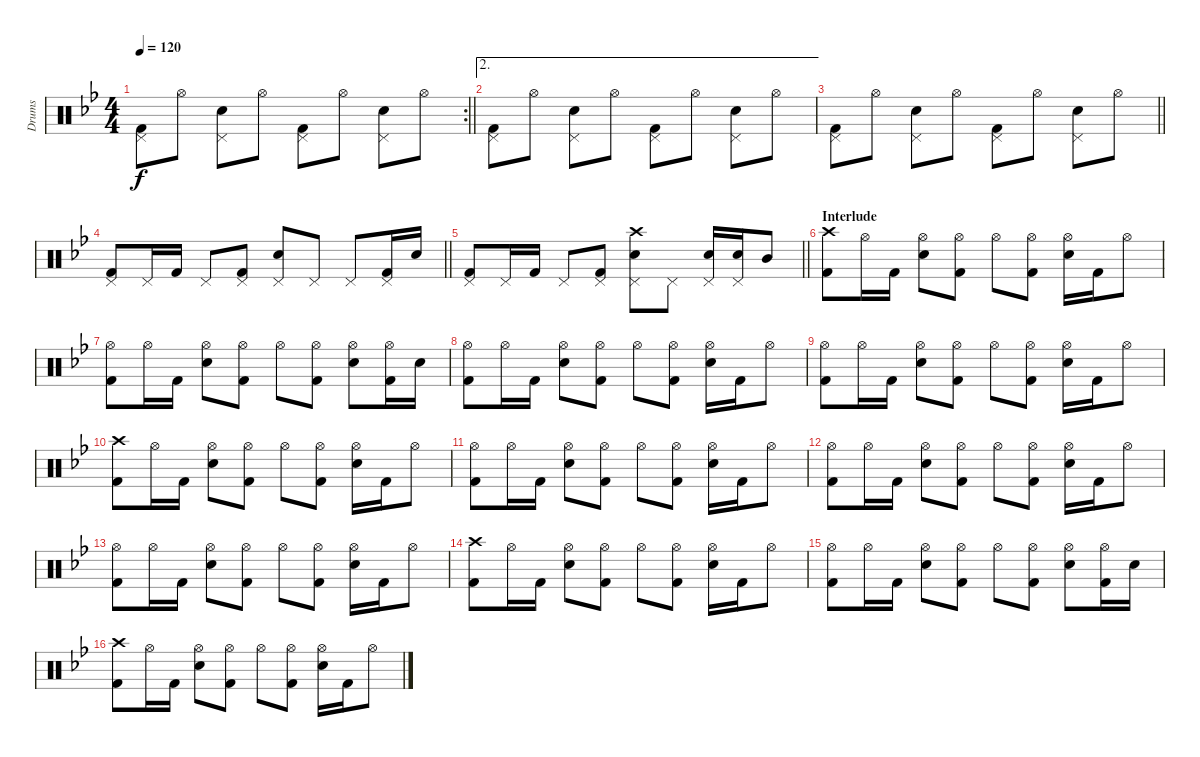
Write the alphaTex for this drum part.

\track ("Drums" "Drums") {instrument percussion}
\staff {score}
\articulation defaults
\rc 2
\ts (4 4)
\tempo 120
\clef neutral
\barLineRight lightlight
\ks bb
("Pedal Hi-Hat (hit)" "Kick (hit) 2").8{dy f} "Hi-Hat (open)".8 ("Electric Snare (hit)" "Pedal Hi-Hat (hit)").8 "Hi-Hat (open)".8 ("Pedal Hi-Hat (hit)" "Kick (hit) 2").8 "Hi-Hat (open)".8 ("Electric Snare (hit)" "Pedal Hi-Hat (hit)").8 "Hi-Hat (open)".8 |
\ae 2
("Pedal Hi-Hat (hit)" "Kick (hit) 2").8 "Hi-Hat (open)".8 ("Electric Snare (hit)" "Pedal Hi-Hat (hit)").8 "Hi-Hat (open)".8 ("Pedal Hi-Hat (hit)" "Kick (hit) 2").8 "Hi-Hat (open)".8 ("Electric Snare (hit)" "Pedal Hi-Hat (hit)").8 "Hi-Hat (open)".8 |
\barLineRight lightlight
("Pedal Hi-Hat (hit)" "Kick (hit) 2").8 "Hi-Hat (open)".8 ("Electric Snare (hit)" "Pedal Hi-Hat (hit)").8 "Hi-Hat (open)".8 ("Pedal Hi-Hat (hit)" "Kick (hit) 2").8 "Hi-Hat (open)".8 ("Electric Snare (hit)" "Pedal Hi-Hat (hit)").8 "Hi-Hat (open)".8 |
\barLineRight lightlight
("Pedal Hi-Hat (hit)" "Kick (hit) 2").8 "Pedal Hi-Hat (hit)".16 "Kick (hit) 2".16 "Pedal Hi-Hat (hit)".8 ("Pedal Hi-Hat (hit)" "Kick (hit) 2").8 ("Pedal Hi-Hat (hit)" "Electric Snare (hit)").8 "Pedal Hi-Hat (hit)".8 "Pedal Hi-Hat (hit)".8 ("Pedal Hi-Hat (hit)" "Kick (hit) 2").16 "Electric Snare (hit)".16 |
\barLineRight lightlight
("Pedal Hi-Hat (hit)" "Kick (hit) 2").8 "Pedal Hi-Hat (hit)".16 "Kick (hit) 2".16 "Pedal Hi-Hat (hit)".8 ("Pedal Hi-Hat (hit)" "Kick (hit) 2").8 ("Pedal Hi-Hat (hit)" "Electric Snare (hit)" "Crash high (hit)").8 "Pedal Hi-Hat (hit)".8 ("Pedal Hi-Hat (hit)" "Electric Snare (hit)").16 ("Electric Snare (hit)" "Pedal Hi-Hat (hit)").16 "Mid Tom (hit)".8 |
\section ("" "Interlude")
("Kick (hit) 2" "Crash high (hit)").8 "Hi-Hat (open)".16 "Kick (hit) 2".16 ("Hi-Hat (open)" "Electric Snare (hit)").8 ("Hi-Hat (open)" "Kick (hit) 2").8 "Hi-Hat (open)".8 ("Hi-Hat (open)" "Kick (hit) 2").8 ("Hi-Hat (open)" "Electric Snare (hit)").16 "Kick (hit) 2".16 "Hi-Hat (open)".8 |
("Kick (hit) 2" "Hi-Hat (open)").8 "Hi-Hat (open)".16 "Kick (hit) 2".16 ("Hi-Hat (open)" "Electric Snare (hit)").8 ("Hi-Hat (open)" "Kick (hit) 2").8 "Hi-Hat (open)".8 ("Hi-Hat (open)" "Kick (hit) 2").8 ("Hi-Hat (open)" "Electric Snare (hit)").8 ("Kick (hit) 2" "Hi-Hat (open)").16 "Electric Snare (hit)".16 |
("Kick (hit) 2" "Hi-Hat (open)").8 "Hi-Hat (open)".16 "Kick (hit) 2".16 ("Hi-Hat (open)" "Electric Snare (hit)").8 ("Hi-Hat (open)" "Kick (hit) 2").8 "Hi-Hat (open)".8 ("Hi-Hat (open)" "Kick (hit) 2").8 ("Hi-Hat (open)" "Electric Snare (hit)").16 "Kick (hit) 2".16 "Hi-Hat (open)".8 |
("Kick (hit) 2" "Hi-Hat (open)").8 "Hi-Hat (open)".16 "Kick (hit) 2".16 ("Hi-Hat (open)" "Electric Snare (hit)").8 ("Hi-Hat (open)" "Kick (hit) 2").8 "Hi-Hat (open)".8 ("Hi-Hat (open)" "Kick (hit) 2").8 ("Hi-Hat (open)" "Electric Snare (hit)").16 "Kick (hit) 2".16 "Hi-Hat (open)".8 |
("Kick (hit) 2" "Crash high (hit)").8 "Hi-Hat (open)".16 "Kick (hit) 2".16 ("Hi-Hat (open)" "Electric Snare (hit)").8 ("Hi-Hat (open)" "Kick (hit) 2").8 "Hi-Hat (open)".8 ("Hi-Hat (open)" "Kick (hit) 2").8 ("Hi-Hat (open)" "Electric Snare (hit)").16 "Kick (hit) 2".16 "Hi-Hat (open)".8 |
("Kick (hit) 2" "Hi-Hat (open)").8 "Hi-Hat (open)".16 "Kick (hit) 2".16 ("Hi-Hat (open)" "Electric Snare (hit)").8 ("Hi-Hat (open)" "Kick (hit) 2").8 "Hi-Hat (open)".8 ("Hi-Hat (open)" "Kick (hit) 2").8 ("Hi-Hat (open)" "Electric Snare (hit)").16 "Kick (hit) 2".16 "Hi-Hat (open)".8 |
("Kick (hit) 2" "Hi-Hat (open)").8 "Hi-Hat (open)".16 "Kick (hit) 2".16 ("Hi-Hat (open)" "Electric Snare (hit)").8 ("Hi-Hat (open)" "Kick (hit) 2").8 "Hi-Hat (open)".8 ("Hi-Hat (open)" "Kick (hit) 2").8 ("Hi-Hat (open)" "Electric Snare (hit)").16 "Kick (hit) 2".16 "Hi-Hat (open)".8 |
("Kick (hit) 2" "Hi-Hat (open)").8 "Hi-Hat (open)".16 "Kick (hit) 2".16 ("Hi-Hat (open)" "Electric Snare (hit)").8 ("Hi-Hat (open)" "Kick (hit) 2").8 "Hi-Hat (open)".8 ("Hi-Hat (open)" "Kick (hit) 2").8 ("Hi-Hat (open)" "Electric Snare (hit)").16 "Kick (hit) 2".16 "Hi-Hat (open)".8 |
("Kick (hit) 2" "Crash high (hit)").8 "Hi-Hat (open)".16 "Kick (hit) 2".16 ("Hi-Hat (open)" "Electric Snare (hit)").8 ("Hi-Hat (open)" "Kick (hit) 2").8 "Hi-Hat (open)".8 ("Hi-Hat (open)" "Kick (hit) 2").8 ("Hi-Hat (open)" "Electric Snare (hit)").16 "Kick (hit) 2".16 "Hi-Hat (open)".8 |
("Kick (hit) 2" "Hi-Hat (open)").8 "Hi-Hat (open)".16 "Kick (hit) 2".16 ("Hi-Hat (open)" "Electric Snare (hit)").8 ("Hi-Hat (open)" "Kick (hit) 2").8 "Hi-Hat (open)".8 ("Hi-Hat (open)" "Kick (hit) 2").8 ("Hi-Hat (open)" "Electric Snare (hit)").8 ("Kick (hit) 2" "Hi-Hat (open)").16 "Electric Snare (hit)".16 |
("Kick (hit) 2" "Crash high (hit)").8 "Hi-Hat (open)".16 "Kick (hit) 2".16 ("Hi-Hat (open)" "Electric Snare (hit)").8 ("Hi-Hat (open)" "Kick (hit) 2").8 "Hi-Hat (open)".8 ("Hi-Hat (open)" "Kick (hit) 2").8 ("Hi-Hat (open)" "Electric Snare (hit)").16 "Kick (hit) 2".16 "Hi-Hat (open)".8
